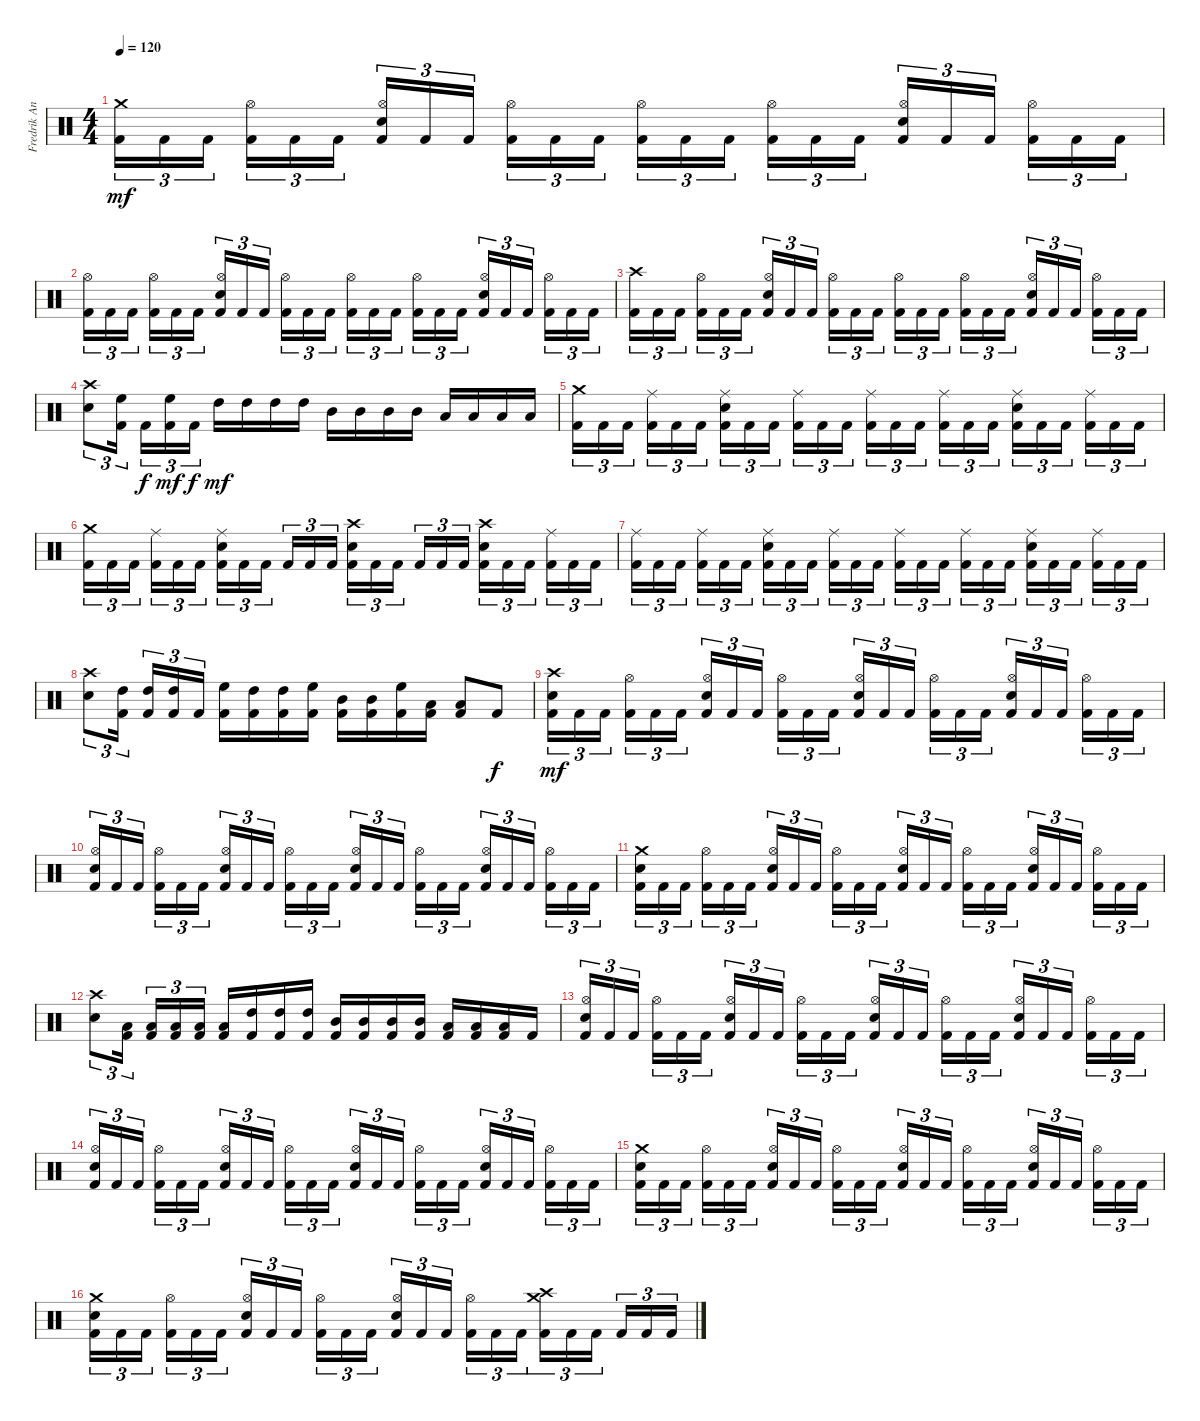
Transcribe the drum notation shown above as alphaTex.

\track ("Fredrik Andersson" "Fredrik An") {instrument percussion}
\staff {score}
\articulation defaults
\ts (4 4)
\tempo 120
\clef neutral
\ks c
("Crash medium (hit)" "Kick (hit) 2").16{tu (3 2) dy mf} "Kick (hit) 2".16{tu (3 2)} "Kick (hit) 2".16{tu (3 2) beam splitsecondary} ("Hi-Hat (open)" "Kick (hit) 2").16{tu (3 2)} "Kick (hit) 2".16{tu (3 2)} "Kick (hit) 2".16{tu (3 2)} ("Snare (hit) 2" "Hi-Hat (open)" "Kick (hit) 2").16{tu (3 2)} "Kick (hit) 2".16{tu (3 2)} "Kick (hit) 2".16{tu (3 2) beam splitsecondary} ("Hi-Hat (open)" "Kick (hit) 2").16{tu (3 2)} "Kick (hit) 2".16{tu (3 2)} "Kick (hit) 2".16{tu (3 2)} ("Hi-Hat (open)" "Kick (hit) 2").16{tu (3 2)} "Kick (hit) 2".16{tu (3 2)} "Kick (hit) 2".16{tu (3 2) beam splitsecondary} ("Hi-Hat (open)" "Kick (hit) 2").16{tu (3 2)} "Kick (hit) 2".16{tu (3 2)} "Kick (hit) 2".16{tu (3 2)} ("Snare (hit) 2" "Hi-Hat (open)" "Kick (hit) 2").16{tu (3 2)} "Kick (hit) 2".16{tu (3 2)} "Kick (hit) 2".16{tu (3 2) beam splitsecondary} ("Hi-Hat (open)" "Kick (hit) 2").16{tu (3 2)} "Kick (hit) 2".16{tu (3 2)} "Kick (hit) 2".16{tu (3 2)} |
("Hi-Hat (open)" "Kick (hit) 2").16{tu (3 2)} "Kick (hit) 2".16{tu (3 2)} "Kick (hit) 2".16{tu (3 2) beam splitsecondary} ("Hi-Hat (open)" "Kick (hit) 2").16{tu (3 2)} "Kick (hit) 2".16{tu (3 2)} "Kick (hit) 2".16{tu (3 2)} ("Snare (hit) 2" "Hi-Hat (open)" "Kick (hit) 2").16{tu (3 2)} "Kick (hit) 2".16{tu (3 2)} "Kick (hit) 2".16{tu (3 2) beam splitsecondary} ("Hi-Hat (open)" "Kick (hit) 2").16{tu (3 2)} "Kick (hit) 2".16{tu (3 2)} "Kick (hit) 2".16{tu (3 2)} ("Hi-Hat (open)" "Kick (hit) 2").16{tu (3 2)} "Kick (hit) 2".16{tu (3 2)} "Kick (hit) 2".16{tu (3 2) beam splitsecondary} ("Hi-Hat (open)" "Kick (hit) 2").16{tu (3 2)} "Kick (hit) 2".16{tu (3 2)} "Kick (hit) 2".16{tu (3 2)} ("Snare (hit) 2" "Hi-Hat (open)" "Kick (hit) 2").16{tu (3 2)} "Kick (hit) 2".16{tu (3 2)} "Kick (hit) 2".16{tu (3 2) beam splitsecondary} ("Hi-Hat (open)" "Kick (hit) 2").16{tu (3 2)} "Kick (hit) 2".16{tu (3 2)} "Kick (hit) 2".16{tu (3 2)} |
("Crash high (hit)" "Kick (hit) 2").16{tu (3 2)} "Kick (hit) 2".16{tu (3 2)} "Kick (hit) 2".16{tu (3 2) beam splitsecondary} ("Hi-Hat (open)" "Kick (hit) 2").16{tu (3 2)} "Kick (hit) 2".16{tu (3 2)} "Kick (hit) 2".16{tu (3 2)} ("Snare (hit) 2" "Hi-Hat (open)" "Kick (hit) 2").16{tu (3 2)} "Kick (hit) 2".16{tu (3 2)} "Kick (hit) 2".16{tu (3 2) beam splitsecondary} ("Hi-Hat (open)" "Kick (hit) 2").16{tu (3 2)} "Kick (hit) 2".16{tu (3 2)} "Kick (hit) 2".16{tu (3 2)} ("Hi-Hat (open)" "Kick (hit) 2").16{tu (3 2)} "Kick (hit) 2".16{tu (3 2)} "Kick (hit) 2".16{tu (3 2) beam splitsecondary} ("Hi-Hat (open)" "Kick (hit) 2").16{tu (3 2)} "Kick (hit) 2".16{tu (3 2)} "Kick (hit) 2".16{tu (3 2)} ("Snare (hit) 2" "Hi-Hat (open)" "Kick (hit) 2").16{tu (3 2)} "Kick (hit) 2".16{tu (3 2)} "Kick (hit) 2".16{tu (3 2) beam splitsecondary} ("Hi-Hat (open)" "Kick (hit) 2").16{tu (3 2)} "Kick (hit) 2".16{tu (3 2)} "Kick (hit) 2".16{tu (3 2)} |
("Crash high (hit)" "Snare (hit) 2").8{tu (3 2)} ("High Floor Tom (hit)" "Kick (hit) 2").16{tu (3 2) beam splitsecondary} "Kick (hit) 2".16{tu (3 2) dy f} ("High Floor Tom (hit)" "Kick (hit) 2").16{tu (3 2) dy mf} "Kick (hit) 2".16{tu (3 2) dy f} "High Tom (hit)".16{dy mf} "High Tom (hit)".16 "High Tom (hit)".16 "High Tom (hit)".16 "Mid Tom (hit)".16 "Mid Tom (hit)".16 "Mid Tom (hit)".16 "Mid Tom (hit)".16 "Low Tom (hit)".16 "Low Tom (hit)".16 "Low Tom (hit)".16 "Low Tom (hit)".16 |
("Crash medium (hit)" "Kick (hit) 2").16{tu (3 2)} "Kick (hit) 2".16{tu (3 2)} "Kick (hit) 2".16{tu (3 2) beam splitsecondary} ("Ride (middle)" "Kick (hit) 2").16{tu (3 2)} "Kick (hit) 2".16{tu (3 2)} "Kick (hit) 2".16{tu (3 2)} ("Snare (hit) 2" "Ride (middle)" "Kick (hit) 2").16{tu (3 2)} "Kick (hit) 2".16{tu (3 2)} "Kick (hit) 2".16{tu (3 2) beam splitsecondary} ("Ride (middle)" "Kick (hit) 2").16{tu (3 2)} "Kick (hit) 2".16{tu (3 2)} "Kick (hit) 2".16{tu (3 2)} ("Ride (middle)" "Kick (hit) 2").16{tu (3 2)} "Kick (hit) 2".16{tu (3 2)} "Kick (hit) 2".16{tu (3 2) beam splitsecondary} ("Ride (middle)" "Kick (hit) 2").16{tu (3 2)} "Kick (hit) 2".16{tu (3 2)} "Kick (hit) 2".16{tu (3 2)} ("Snare (hit) 2" "Ride (middle)" "Kick (hit) 2").16{tu (3 2)} "Kick (hit) 2".16{tu (3 2)} "Kick (hit) 2".16{tu (3 2) beam splitsecondary} ("Ride (middle)" "Kick (hit) 2").16{tu (3 2)} "Kick (hit) 2".16{tu (3 2)} "Kick (hit) 2".16{tu (3 2)} |
("Crash medium (hit)" "Kick (hit) 2").16{tu (3 2)} "Kick (hit) 2".16{tu (3 2)} "Kick (hit) 2".16{tu (3 2) beam splitsecondary} ("Ride (middle)" "Kick (hit) 2").16{tu (3 2)} "Kick (hit) 2".16{tu (3 2)} "Kick (hit) 2".16{tu (3 2)} ("Snare (hit) 2" "Ride (middle)" "Kick (hit) 2").16{tu (3 2)} "Kick (hit) 2".16{tu (3 2)} "Kick (hit) 2".16{tu (3 2) beam splitsecondary} "Kick (hit) 2".16{tu (3 2)} "Kick (hit) 2".16{tu (3 2)} "Kick (hit) 2".16{tu (3 2)} ("Snare (hit) 2" "Crash high (hit)" "Kick (hit) 2").16{tu (3 2)} "Kick (hit) 2".16{tu (3 2)} "Kick (hit) 2".16{tu (3 2) beam splitsecondary} "Kick (hit) 2".16{tu (3 2)} "Kick (hit) 2".16{tu (3 2)} "Kick (hit) 2".16{tu (3 2)} ("Snare (hit) 2" "Crash high (hit)" "Kick (hit) 2").16{tu (3 2)} "Kick (hit) 2".16{tu (3 2)} "Kick (hit) 2".16{tu (3 2) beam splitsecondary} ("Ride (middle)" "Kick (hit) 2").16{tu (3 2)} "Kick (hit) 2".16{tu (3 2)} "Kick (hit) 2".16{tu (3 2)} |
("Ride (middle)" "Kick (hit) 2").16{tu (3 2)} "Kick (hit) 2".16{tu (3 2)} "Kick (hit) 2".16{tu (3 2) beam splitsecondary} ("Ride (middle)" "Kick (hit) 2").16{tu (3 2)} "Kick (hit) 2".16{tu (3 2)} "Kick (hit) 2".16{tu (3 2)} ("Snare (hit) 2" "Ride (middle)" "Kick (hit) 2").16{tu (3 2)} "Kick (hit) 2".16{tu (3 2)} "Kick (hit) 2".16{tu (3 2) beam splitsecondary} ("Ride (middle)" "Kick (hit) 2").16{tu (3 2)} "Kick (hit) 2".16{tu (3 2)} "Kick (hit) 2".16{tu (3 2)} ("Ride (middle)" "Kick (hit) 2").16{tu (3 2)} "Kick (hit) 2".16{tu (3 2)} "Kick (hit) 2".16{tu (3 2) beam splitsecondary} ("Ride (middle)" "Kick (hit) 2").16{tu (3 2)} "Kick (hit) 2".16{tu (3 2)} "Kick (hit) 2".16{tu (3 2)} ("Snare (hit) 2" "Ride (middle)" "Kick (hit) 2").16{tu (3 2)} "Kick (hit) 2".16{tu (3 2)} "Kick (hit) 2".16{tu (3 2) beam splitsecondary} ("Ride (middle)" "Kick (hit) 2").16{tu (3 2)} "Kick (hit) 2".16{tu (3 2)} "Kick (hit) 2".16{tu (3 2)} |
("Crash high (hit)" "Snare (hit) 2").8{tu (3 2)} ("High Tom (hit)" "Kick (hit) 2").16{tu (3 2) beam splitsecondary} ("High Tom (hit)" "Kick (hit) 2").16{tu (3 2)} ("High Tom (hit)" "Kick (hit) 2").16{tu (3 2)} "Kick (hit) 2".16{tu (3 2)} ("High Floor Tom (hit)" "Kick (hit) 2").16 ("High Tom (hit)" "Kick (hit) 2").16 ("High Tom (hit)" "Kick (hit) 2").16 ("High Floor Tom (hit)" "Kick (hit) 2").16 ("Mid Tom (hit)" "Kick (hit) 2").16 ("Mid Tom (hit)" "Kick (hit) 2").16 ("High Floor Tom (hit)" "Kick (hit) 2").16 ("Low Tom (hit)" "Kick (hit) 2").16 ("Low Tom (hit)" "Kick (hit) 2").8 "Kick (hit) 2".8{dy f} |
("Snare (hit) 2" "Crash high (hit)" "Kick (hit) 2").16{tu (3 2) dy mf} "Kick (hit) 2".16{tu (3 2)} "Kick (hit) 2".16{tu (3 2) beam splitsecondary} ("Hi-Hat (open)" "Kick (hit) 2").16{tu (3 2)} "Kick (hit) 2".16{tu (3 2)} "Kick (hit) 2".16{tu (3 2)} ("Snare (hit) 2" "Hi-Hat (open)" "Kick (hit) 2").16{tu (3 2)} "Kick (hit) 2".16{tu (3 2)} "Kick (hit) 2".16{tu (3 2) beam splitsecondary} ("Hi-Hat (open)" "Kick (hit) 2").16{tu (3 2)} "Kick (hit) 2".16{tu (3 2)} "Kick (hit) 2".16{tu (3 2)} ("Snare (hit) 2" "Hi-Hat (open)" "Kick (hit) 2").16{tu (3 2)} "Kick (hit) 2".16{tu (3 2)} "Kick (hit) 2".16{tu (3 2) beam splitsecondary} ("Hi-Hat (open)" "Kick (hit) 2").16{tu (3 2)} "Kick (hit) 2".16{tu (3 2)} "Kick (hit) 2".16{tu (3 2)} ("Snare (hit) 2" "Hi-Hat (open)" "Kick (hit) 2").16{tu (3 2)} "Kick (hit) 2".16{tu (3 2)} "Kick (hit) 2".16{tu (3 2) beam splitsecondary} ("Hi-Hat (open)" "Kick (hit) 2").16{tu (3 2)} "Kick (hit) 2".16{tu (3 2)} "Kick (hit) 2".16{tu (3 2)} |
("Snare (hit) 2" "Hi-Hat (open)" "Kick (hit) 2").16{tu (3 2)} "Kick (hit) 2".16{tu (3 2)} "Kick (hit) 2".16{tu (3 2) beam splitsecondary} ("Hi-Hat (open)" "Kick (hit) 2").16{tu (3 2)} "Kick (hit) 2".16{tu (3 2)} "Kick (hit) 2".16{tu (3 2)} ("Snare (hit) 2" "Hi-Hat (open)" "Kick (hit) 2").16{tu (3 2)} "Kick (hit) 2".16{tu (3 2)} "Kick (hit) 2".16{tu (3 2) beam splitsecondary} ("Hi-Hat (open)" "Kick (hit) 2").16{tu (3 2)} "Kick (hit) 2".16{tu (3 2)} "Kick (hit) 2".16{tu (3 2)} ("Snare (hit) 2" "Hi-Hat (open)" "Kick (hit) 2").16{tu (3 2)} "Kick (hit) 2".16{tu (3 2)} "Kick (hit) 2".16{tu (3 2) beam splitsecondary} ("Hi-Hat (open)" "Kick (hit) 2").16{tu (3 2)} "Kick (hit) 2".16{tu (3 2)} "Kick (hit) 2".16{tu (3 2)} ("Snare (hit) 2" "Hi-Hat (open)" "Kick (hit) 2").16{tu (3 2)} "Kick (hit) 2".16{tu (3 2)} "Kick (hit) 2".16{tu (3 2) beam splitsecondary} ("Hi-Hat (open)" "Kick (hit) 2").16{tu (3 2)} "Kick (hit) 2".16{tu (3 2)} "Kick (hit) 2".16{tu (3 2)} |
("Snare (hit) 2" "Crash medium (hit)" "Kick (hit) 2").16{tu (3 2)} "Kick (hit) 2".16{tu (3 2)} "Kick (hit) 2".16{tu (3 2) beam splitsecondary} ("Hi-Hat (open)" "Kick (hit) 2").16{tu (3 2)} "Kick (hit) 2".16{tu (3 2)} "Kick (hit) 2".16{tu (3 2)} ("Snare (hit) 2" "Hi-Hat (open)" "Kick (hit) 2").16{tu (3 2)} "Kick (hit) 2".16{tu (3 2)} "Kick (hit) 2".16{tu (3 2) beam splitsecondary} ("Hi-Hat (open)" "Kick (hit) 2").16{tu (3 2)} "Kick (hit) 2".16{tu (3 2)} "Kick (hit) 2".16{tu (3 2)} ("Snare (hit) 2" "Hi-Hat (open)" "Kick (hit) 2").16{tu (3 2)} "Kick (hit) 2".16{tu (3 2)} "Kick (hit) 2".16{tu (3 2) beam splitsecondary} ("Hi-Hat (open)" "Kick (hit) 2").16{tu (3 2)} "Kick (hit) 2".16{tu (3 2)} "Kick (hit) 2".16{tu (3 2)} ("Snare (hit) 2" "Hi-Hat (open)" "Kick (hit) 2").16{tu (3 2)} "Kick (hit) 2".16{tu (3 2)} "Kick (hit) 2".16{tu (3 2) beam splitsecondary} ("Hi-Hat (open)" "Kick (hit) 2").16{tu (3 2)} "Kick (hit) 2".16{tu (3 2)} "Kick (hit) 2".16{tu (3 2)} |
("Crash high (hit)" "Snare (hit) 2").8{tu (3 2)} ("Low Tom (hit)" "Kick (hit) 2").16{tu (3 2) beam splitsecondary} ("Low Tom (hit)" "Kick (hit) 2").16{tu (3 2)} ("Low Tom (hit)" "Kick (hit) 2").16{tu (3 2)} ("Low Tom (hit)" "Kick (hit) 2").16{tu (3 2)} ("Low Tom (hit)" "Kick (hit) 2").16 ("High Tom (hit)" "Kick (hit) 2").16 ("High Tom (hit)" "Kick (hit) 2").16 ("High Tom (hit)" "Kick (hit) 2").16 ("Mid Tom (hit)" "Kick (hit) 2").16 ("Mid Tom (hit)" "Kick (hit) 2").16 ("Mid Tom (hit)" "Kick (hit) 2").16 ("Mid Tom (hit)" "Kick (hit) 2").16 ("Low Tom (hit)" "Kick (hit) 2").16 ("Low Tom (hit)" "Kick (hit) 2").16 ("Low Tom (hit)" "Kick (hit) 2").16 "Kick (hit) 2".16 |
("Snare (hit) 2" "Hi-Hat (open)" "Kick (hit) 2").16{tu (3 2)} "Kick (hit) 2".16{tu (3 2)} "Kick (hit) 2".16{tu (3 2) beam splitsecondary} ("Hi-Hat (open)" "Kick (hit) 2").16{tu (3 2)} "Kick (hit) 2".16{tu (3 2)} "Kick (hit) 2".16{tu (3 2)} ("Snare (hit) 2" "Hi-Hat (open)" "Kick (hit) 2").16{tu (3 2)} "Kick (hit) 2".16{tu (3 2)} "Kick (hit) 2".16{tu (3 2) beam splitsecondary} ("Hi-Hat (open)" "Kick (hit) 2").16{tu (3 2)} "Kick (hit) 2".16{tu (3 2)} "Kick (hit) 2".16{tu (3 2)} ("Snare (hit) 2" "Hi-Hat (open)" "Kick (hit) 2").16{tu (3 2)} "Kick (hit) 2".16{tu (3 2)} "Kick (hit) 2".16{tu (3 2) beam splitsecondary} ("Hi-Hat (open)" "Kick (hit) 2").16{tu (3 2)} "Kick (hit) 2".16{tu (3 2)} "Kick (hit) 2".16{tu (3 2)} ("Snare (hit) 2" "Hi-Hat (open)" "Kick (hit) 2").16{tu (3 2)} "Kick (hit) 2".16{tu (3 2)} "Kick (hit) 2".16{tu (3 2) beam splitsecondary} ("Hi-Hat (open)" "Kick (hit) 2").16{tu (3 2)} "Kick (hit) 2".16{tu (3 2)} "Kick (hit) 2".16{tu (3 2)} |
("Snare (hit) 2" "Hi-Hat (open)" "Kick (hit) 2").16{tu (3 2)} "Kick (hit) 2".16{tu (3 2)} "Kick (hit) 2".16{tu (3 2) beam splitsecondary} ("Hi-Hat (open)" "Kick (hit) 2").16{tu (3 2)} "Kick (hit) 2".16{tu (3 2)} "Kick (hit) 2".16{tu (3 2)} ("Snare (hit) 2" "Hi-Hat (open)" "Kick (hit) 2").16{tu (3 2)} "Kick (hit) 2".16{tu (3 2)} "Kick (hit) 2".16{tu (3 2) beam splitsecondary} ("Hi-Hat (open)" "Kick (hit) 2").16{tu (3 2)} "Kick (hit) 2".16{tu (3 2)} "Kick (hit) 2".16{tu (3 2)} ("Snare (hit) 2" "Hi-Hat (open)" "Kick (hit) 2").16{tu (3 2)} "Kick (hit) 2".16{tu (3 2)} "Kick (hit) 2".16{tu (3 2) beam splitsecondary} ("Hi-Hat (open)" "Kick (hit) 2").16{tu (3 2)} "Kick (hit) 2".16{tu (3 2)} "Kick (hit) 2".16{tu (3 2)} ("Snare (hit) 2" "Hi-Hat (open)" "Kick (hit) 2").16{tu (3 2)} "Kick (hit) 2".16{tu (3 2)} "Kick (hit) 2".16{tu (3 2) beam splitsecondary} ("Hi-Hat (open)" "Kick (hit) 2").16{tu (3 2)} "Kick (hit) 2".16{tu (3 2)} "Kick (hit) 2".16{tu (3 2)} |
("Snare (hit) 2" "Crash medium (hit)" "Kick (hit) 2").16{tu (3 2)} "Kick (hit) 2".16{tu (3 2)} "Kick (hit) 2".16{tu (3 2) beam splitsecondary} ("Hi-Hat (open)" "Kick (hit) 2").16{tu (3 2)} "Kick (hit) 2".16{tu (3 2)} "Kick (hit) 2".16{tu (3 2)} ("Snare (hit) 2" "Hi-Hat (open)" "Kick (hit) 2").16{tu (3 2)} "Kick (hit) 2".16{tu (3 2)} "Kick (hit) 2".16{tu (3 2) beam splitsecondary} ("Hi-Hat (open)" "Kick (hit) 2").16{tu (3 2)} "Kick (hit) 2".16{tu (3 2)} "Kick (hit) 2".16{tu (3 2)} ("Snare (hit) 2" "Hi-Hat (open)" "Kick (hit) 2").16{tu (3 2)} "Kick (hit) 2".16{tu (3 2)} "Kick (hit) 2".16{tu (3 2) beam splitsecondary} ("Hi-Hat (open)" "Kick (hit) 2").16{tu (3 2)} "Kick (hit) 2".16{tu (3 2)} "Kick (hit) 2".16{tu (3 2)} ("Snare (hit) 2" "Hi-Hat (open)" "Kick (hit) 2").16{tu (3 2)} "Kick (hit) 2".16{tu (3 2)} "Kick (hit) 2".16{tu (3 2) beam splitsecondary} ("Hi-Hat (open)" "Kick (hit) 2").16{tu (3 2)} "Kick (hit) 2".16{tu (3 2)} "Kick (hit) 2".16{tu (3 2)} |
("Snare (hit) 2" "Crash medium (hit)" "Kick (hit) 2").16{tu (3 2)} "Kick (hit) 2".16{tu (3 2)} "Kick (hit) 2".16{tu (3 2) beam splitsecondary} ("Hi-Hat (open)" "Kick (hit) 2").16{tu (3 2)} "Kick (hit) 2".16{tu (3 2)} "Kick (hit) 2".16{tu (3 2)} ("Snare (hit) 2" "Hi-Hat (open)" "Kick (hit) 2").16{tu (3 2)} "Kick (hit) 2".16{tu (3 2)} "Kick (hit) 2".16{tu (3 2) beam splitsecondary} ("Hi-Hat (open)" "Kick (hit) 2").16{tu (3 2)} "Kick (hit) 2".16{tu (3 2)} "Kick (hit) 2".16{tu (3 2)} ("Snare (hit) 2" "Hi-Hat (open)" "Kick (hit) 2").16{tu (3 2)} "Kick (hit) 2".16{tu (3 2)} "Kick (hit) 2".16{tu (3 2) beam splitsecondary} ("Hi-Hat (open)" "Kick (hit) 2").16{tu (3 2)} "Kick (hit) 2".16{tu (3 2)} "Kick (hit) 2".16{tu (3 2)} ("Crash high (hit)" "Crash medium (hit)" "Kick (hit) 2").16{tu (3 2)} "Kick (hit) 2".16{tu (3 2)} "Kick (hit) 2".16{tu (3 2) beam splitsecondary} "Kick (hit) 2".16{tu (3 2)} "Kick (hit) 2".16{tu (3 2)} "Kick (hit) 2".16{tu (3 2)}
